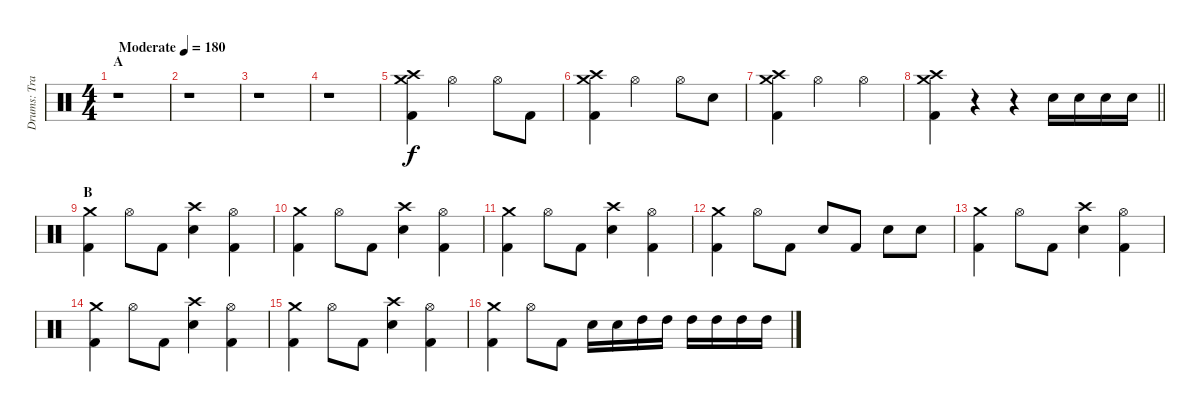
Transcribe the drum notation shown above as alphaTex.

\track ("Drums: Travis Clarke" "Drums: Tra") {instrument percussion}
\staff {score}
\articulation defaults
\ts (4 4)
\section ("" "A")
\tempo (180 "Moderate")
\clef neutral
\ks c
r.1{dy f} |
r.1 |
r.1 |
r.1 |
("Kick (hit) 2" "Crash high (hit)" "Crash medium (hit)").4 "Hi-Hat (open)".2 "Hi-Hat (open)".8 "Kick (hit) 2".8 |
("Kick (hit) 2" "Crash high (hit)" "Crash medium (hit)").4 "Hi-Hat (open)".2 "Hi-Hat (open)".8 "Snare (hit) 2".8 |
("Kick (hit) 2" "Crash high (hit)" "Crash medium (hit)").4 "Hi-Hat (open)".2 "Hi-Hat (open)".4 |
\barLineRight lightlight
("Kick (hit) 2" "Crash high (hit)" "Crash medium (hit)").4 r.4 r.4 "Snare (hit) 2".16 "Snare (hit) 2".16 "Snare (hit) 2".16 "Snare (hit) 2".16 |
\section ("" "B")
("Kick (hit) 2" "Crash medium (hit)").4 "Hi-Hat (open)".8 "Kick (hit) 2".8 ("Snare (hit) 2" "Crash high (hit)").4 ("Kick (hit) 2" "Hi-Hat (open)").4 |
("Kick (hit) 2" "Crash medium (hit)").4 "Hi-Hat (open)".8 "Kick (hit) 2".8 ("Snare (hit) 2" "Crash high (hit)").4 ("Kick (hit) 2" "Hi-Hat (open)").4 |
("Kick (hit) 2" "Crash medium (hit)").4 "Hi-Hat (open)".8 "Kick (hit) 2".8 ("Snare (hit) 2" "Crash high (hit)").4 ("Kick (hit) 2" "Hi-Hat (open)").4 |
("Kick (hit) 2" "Crash medium (hit)").4 "Hi-Hat (open)".8 "Kick (hit) 2".8 "Snare (hit) 2".8 "Kick (hit) 2".8 "Snare (hit) 2".8 "Snare (hit) 2".8 |
("Kick (hit) 2" "Crash medium (hit)").4 "Hi-Hat (open)".8 "Kick (hit) 2".8 ("Snare (hit) 2" "Crash high (hit)").4 ("Kick (hit) 2" "Hi-Hat (open)").4 |
("Kick (hit) 2" "Crash medium (hit)").4 "Hi-Hat (open)".8 "Kick (hit) 2".8 ("Snare (hit) 2" "Crash high (hit)").4 ("Kick (hit) 2" "Hi-Hat (open)").4 |
("Kick (hit) 2" "Crash medium (hit)").4 "Hi-Hat (open)".8 "Kick (hit) 2".8 ("Snare (hit) 2" "Crash high (hit)").4 ("Kick (hit) 2" "Hi-Hat (open)").4 |
("Kick (hit) 2" "Crash medium (hit)").4 "Hi-Hat (open)".8 "Kick (hit) 2".8 "Snare (hit) 2".16 "Snare (hit) 2".16 "High Tom (hit)".16 "High Tom (hit)".16 "High Tom (hit)".16 "High Tom (hit)".16 "High Tom (hit)".16 "High Tom (hit)".16
